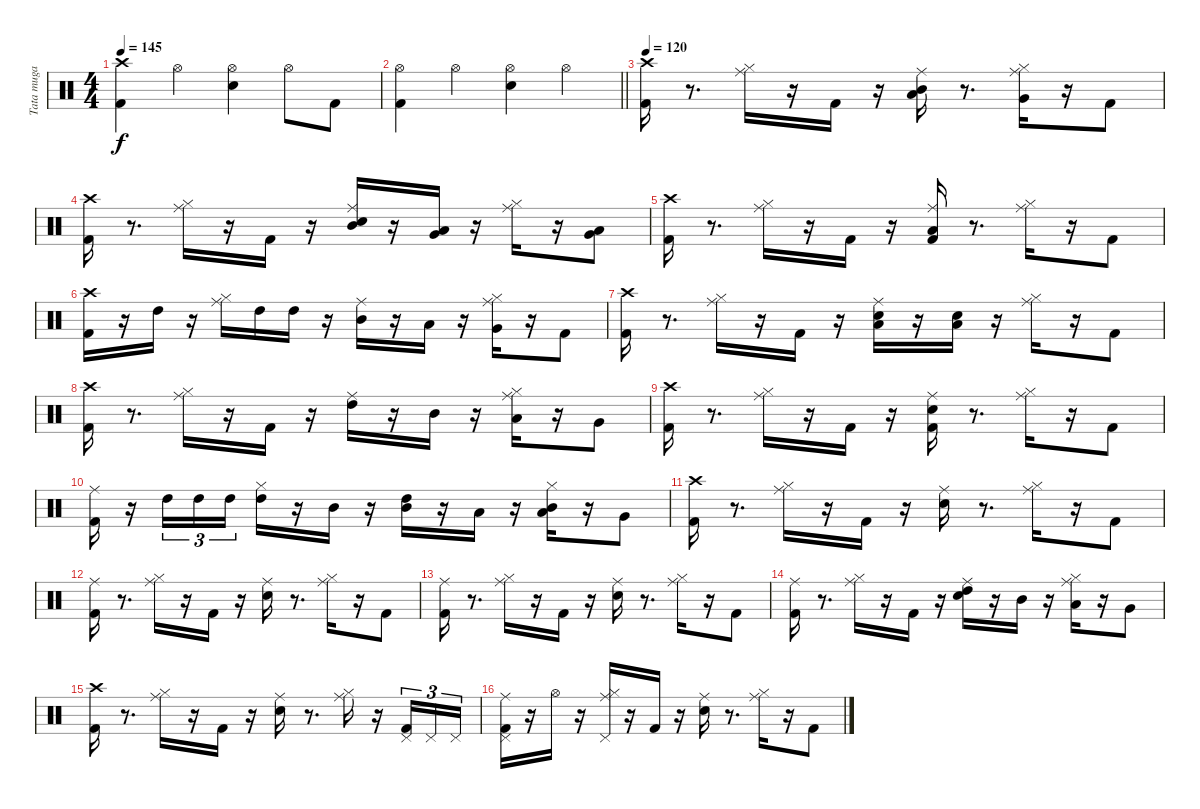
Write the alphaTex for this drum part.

\track ("Tata muga" "Tata muga") {instrument percussion}
\staff {score}
\articulation defaults
\ts (4 4)
\tempo 145
\clef neutral
\ks c
("Crash high (hit)" "Kick (hit) 2").4{dy f} "Hi-Hat (open)".4 ("Hi-Hat (open)" "Electric Snare (hit)").4 "Hi-Hat (open)".8 "Kick (hit) 2".8 |
\barLineRight lightlight
("Hi-Hat (open)" "Kick (hit) 2").4 "Hi-Hat (open)".4 ("Hi-Hat (open)" "Electric Snare (hit)").4 "Hi-Hat (open)".4 |
\tempo 120
("Crash high (hit)" "Kick (hit) 2").16 r.8{d} ("Ride (middle)" "Hi-Hat (closed)").16 r.16 "Kick (hit) 2".16 r.16 ("Ride (middle)" "Low Tom (hit)" "Mid Tom (hit)").16 r.8{d} ("Ride (middle)" "Hi-Hat (closed)" "Very Low Tom (hit)").16 r.16 "Kick (hit) 2".8 |
("Crash high (hit)" "Kick (hit) 2").16 r.8{d} ("Hi-Hat (closed)" "Ride (middle)").16 r.16 "Kick (hit) 2".16 r.16 ("Ride (middle)" "Mid Tom (hit)" "Electric Snare (hit)").16 r.16 ("Very Low Tom (hit)" "Low Tom (hit)").16 r.16 ("Hi-Hat (closed)" "Ride (middle)").16 r.16 ("Very Low Tom (hit)" "Low Floor Tom (hit)").8 |
("Crash high (hit)" "Kick (hit) 2").16 r.8{d} ("Hi-Hat (closed)" "Ride (middle)").16 r.16 "Kick (hit) 2".16 r.16 ("Ride (middle)" "Kick (hit) 2" "Low Tom (hit)").16 r.8{d} ("Hi-Hat (closed)" "Ride (middle)").16 r.16 "Kick (hit) 2".8 |
("Crash high (hit)" "Kick (hit) 2").16 r.16 "High Tom (hit)".16 r.16 ("Hi-Hat (closed)" "Ride (middle)").16 "High Tom (hit)".16 "High Tom (hit)".16 r.16 ("Mid Tom (hit)" "Ride (middle)").16 r.16 "Low Tom (hit)".16 r.16 ("Hi-Hat (closed)" "Ride (middle)" "Very Low Tom (hit)").16 r.16 "Kick (hit) 2".8 |
("Crash high (hit)" "Kick (hit) 2").16 r.8{d} ("Hi-Hat (closed)" "Ride (middle)").16 r.16 "Kick (hit) 2".16 r.16 ("Ride (middle)" "Low Floor Tom (hit)" "Electric Snare (hit)").16 r.16 ("Low Floor Tom (hit)" "Electric Snare (hit)").16 r.16 ("Hi-Hat (closed)" "Ride (middle)").16 r.16 "Kick (hit) 2".8 |
("Kick (hit) 2" "Crash high (hit)").16 r.8{d} ("Hi-Hat (closed)" "Ride (middle)").16 r.16 "Kick (hit) 2".16 r.16 ("Ride (middle)" "High Tom (hit)").16 r.16 "Mid Tom (hit)".16 r.16 ("Hi-Hat (closed)" "Ride (middle)" "Low Tom (hit)").16 r.16 "Very Low Tom (hit)".8 |
("Crash high (hit)" "Kick (hit) 2").16 r.8{d} ("Hi-Hat (closed)" "Ride (middle)").16 r.16 "Kick (hit) 2".16 r.16 ("Kick (hit) 2" "Electric Snare (hit)" "Ride (middle)").16 r.8{d} ("Hi-Hat (closed)" "Ride (middle)").16 r.16 "Kick (hit) 2".8 |
("Ride (middle)" "Kick (hit) 2").16 r.16 "High Tom (hit)".16{tu (3 2)} "High Tom (hit)".16{tu (3 2)} "High Tom (hit)".16{tu (3 2)} ("Hi-Hat (closed)" "High Tom (hit)").16 r.16 "Mid Tom (hit)".16 r.16 ("High Tom (hit)" "Mid Tom (hit)").16 r.16 "Low Tom (hit)".16 r.16 ("Mid Tom (hit)" "Hi-Hat (closed)" "Low Tom (hit)").16 r.16 "Very Low Tom (hit)".8 |
("Crash high (hit)" "Kick (hit) 2").16 r.8{d} ("Hi-Hat (closed)" "Ride (middle)").16 r.16 "Kick (hit) 2".16 r.16 ("Ride (middle)" "Electric Snare (hit)").16 r.8{d} ("Hi-Hat (closed)" "Ride (middle)").16 r.16 "Kick (hit) 2".8 |
("Ride (middle)" "Kick (hit) 2").16 r.8{d} ("Hi-Hat (closed)" "Ride (middle)").16 r.16 "Kick (hit) 2".16 r.16 ("Ride (middle)" "Electric Snare (hit)").16 r.8{d} ("Hi-Hat (closed)" "Ride (middle)").16 r.16 "Kick (hit) 2".8 |
("Ride (middle)" "Kick (hit) 2").16 r.8{d} ("Hi-Hat (closed)" "Ride (middle)").16 r.16 "Kick (hit) 2".16 r.16 ("Ride (middle)" "Electric Snare (hit)").16 r.8{d} ("Hi-Hat (closed)" "Ride (middle)").16 r.16 "Kick (hit) 2".8 |
("Ride (middle)" "Kick (hit) 2").16 r.8{d} ("Hi-Hat (closed)" "Ride (middle)").16 r.16 "Kick (hit) 2".16 r.16 ("Ride (middle)" "High Tom (hit)" "Electric Snare (hit)").16 r.16 "Mid Tom (hit)".16 r.16 ("Hi-Hat (closed)" "Ride (middle)" "Low Tom (hit)").16 r.16 "Very Low Tom (hit)".8 |
("Crash high (hit)" "Kick (hit) 2").16 r.8{d} ("Ride (middle)" "Hi-Hat (closed)").16 r.16 "Kick (hit) 2".16 r.16 ("Ride (middle)" "Electric Snare (hit)").16 r.8{d} ("Ride (middle)" "Hi-Hat (closed)").16 r.16 ("Pedal Hi-Hat (hit)" "Kick (hit) 2").16{tu (3 2)} "Pedal Hi-Hat (hit)".16{tu (3 2)} "Pedal Hi-Hat (hit)".16{tu (3 2)} |
("Pedal Hi-Hat (hit)" "Ride (middle)" "Kick (hit) 2").16 r.16 "Hi-Hat (open)".16 r.16 ("Pedal Hi-Hat (hit)" "Ride (middle)" "Hi-Hat (closed)").16 r.16 "Kick (hit) 2".16 r.16 ("Ride (middle)" "Electric Snare (hit)").16 r.8{d} ("Ride (middle)" "Hi-Hat (closed)").16 r.16 "Kick (hit) 2".8
